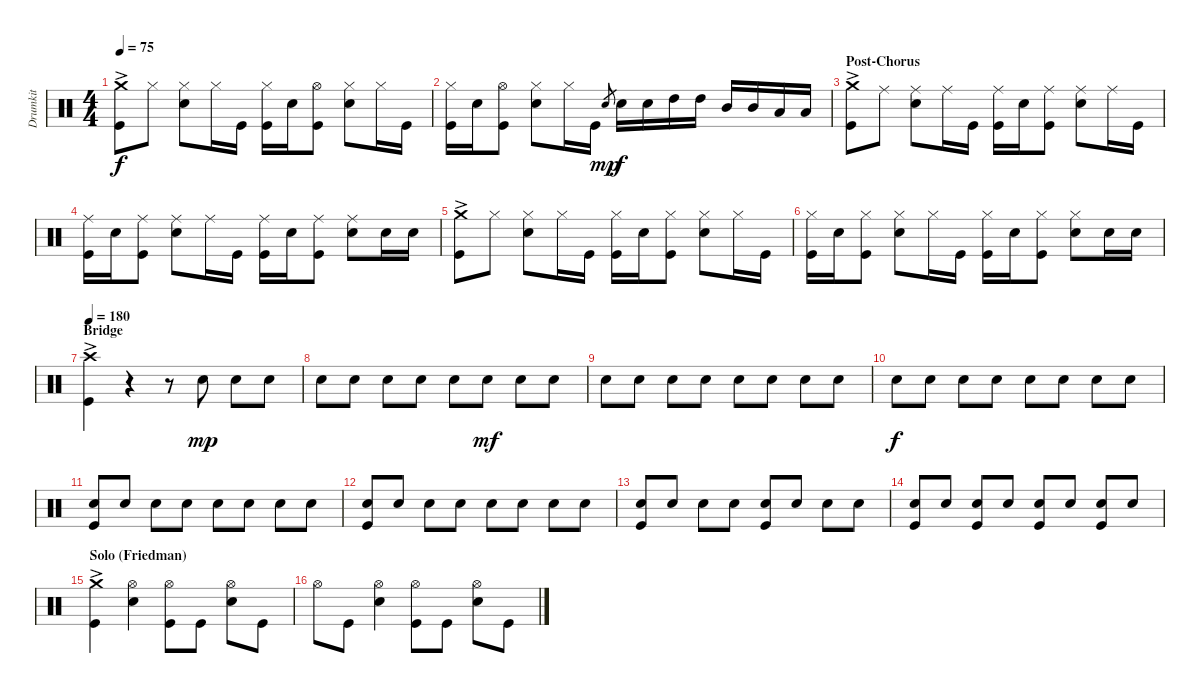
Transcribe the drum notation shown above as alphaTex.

\track ("Drumkit" "Drumkit") {instrument percussion}
\staff {score}
\articulation defaults
\ts (4 4)
\tempo 75
\clef neutral
\ks c
("Crash medium (hit)"{ac} "Kick (hit)").8{dy f} "Hi-Hat (closed)".8 ("Hi-Hat (closed)" "Snare (hit) 2").8 "Hi-Hat (closed)".16 "Kick (hit)".16 ("Hi-Hat (closed)" "Kick (hit)").16 "Snare (hit) 2".16 ("Hi-Hat (open)" "Kick (hit)").8 ("Hi-Hat (closed)" "Snare (hit) 2").8 "Hi-Hat (closed)".16 "Kick (hit)".16 |
("Hi-Hat (closed)" "Kick (hit)").16 "Snare (hit) 2".16 ("Hi-Hat (open)" "Kick (hit)").8 ("Hi-Hat (closed)" "Snare (hit) 2").8 "Hi-Hat (closed)".16 "Kick (hit)".16 "Snare (hit)".8{gr dy mp} "Snare (hit) 2".16{dy f} "Snare (hit) 2".16 "High Tom (hit)".16 "High Tom (hit)".16 "Mid Tom (hit)".16 "Mid Tom (hit)".16 "Low Tom (hit)".16 "Low Tom (hit)".16 |
\section ("" "Post-Chorus")
("Crash medium (hit)"{ac} "Kick (hit)").8 "Ride (middle)".8 ("Ride (middle)" "Snare (hit) 2").8 "Ride (middle)".16 "Kick (hit)".16 ("Ride (middle)" "Kick (hit)").16 "Snare (hit) 2".16 ("Ride (middle)" "Kick (hit)").8 ("Ride (middle)" "Snare (hit) 2").8 "Ride (middle)".16 "Kick (hit)".16 |
("Ride (middle)" "Kick (hit)").16 "Snare (hit) 2".16 ("Ride (middle)" "Kick (hit)").8 ("Ride (middle)" "Snare (hit) 2").8 "Ride (middle)".16 "Kick (hit)".16 ("Ride (middle)" "Kick (hit)").16 "Snare (hit) 2".16 ("Ride (middle)" "Kick (hit)").8 ("Ride (middle)" "Snare (hit) 2").8 "Snare (hit) 2".16 "Snare (hit) 2".16 |
("Crash medium (hit)"{ac} "Kick (hit)").8 "Hi-Hat (closed)".8 ("Hi-Hat (closed)" "Snare (hit) 2").8 "Hi-Hat (closed)".16 "Kick (hit)".16 ("Hi-Hat (closed)" "Kick (hit)").16 "Snare (hit) 2".16 ("Hi-Hat (closed)" "Kick (hit)").8 ("Hi-Hat (closed)" "Snare (hit) 2").8 "Hi-Hat (closed)".16 "Kick (hit)".16 |
("Hi-Hat (closed)" "Kick (hit)").16 "Snare (hit) 2".16 ("Hi-Hat (closed)" "Kick (hit)").8 ("Hi-Hat (closed)" "Snare (hit) 2").8 "Hi-Hat (closed)".16 "Kick (hit)".16 ("Hi-Hat (closed)" "Kick (hit)").16 "Snare (hit) 2".16 ("Hi-Hat (closed)" "Kick (hit)").8 ("Hi-Hat (closed)" "Snare (hit) 2").8 "Snare (hit) 2".16 "Snare (hit) 2".16 |
\section ("" "Bridge")
\tempo 180
("Crash high (hit)"{ac} "Kick (hit)").4 r.4 r.8 "Snare (hit) 2".8{dy mp} "Snare (hit) 2".8 "Snare (hit) 2".8 |
"Snare (hit) 2".8 "Snare (hit) 2".8 "Snare (hit) 2".8 "Snare (hit) 2".8 "Snare (hit) 2".8 "Snare (hit) 2".8{dy mf} "Snare (hit) 2".8 "Snare (hit) 2".8 |
"Snare (hit) 2".8 "Snare (hit) 2".8 "Snare (hit) 2".8 "Snare (hit) 2".8 "Snare (hit) 2".8 "Snare (hit) 2".8 "Snare (hit) 2".8 "Snare (hit) 2".8 |
"Snare (hit) 2".8{dy f} "Snare (hit) 2".8 "Snare (hit) 2".8 "Snare (hit) 2".8 "Snare (hit) 2".8 "Snare (hit) 2".8 "Snare (hit) 2".8 "Snare (hit) 2".8 |
("Snare (hit) 2" "Kick (hit)").8 "Snare (hit) 2".8 "Snare (hit) 2".8 "Snare (hit) 2".8 "Snare (hit) 2".8 "Snare (hit) 2".8 "Snare (hit) 2".8 "Snare (hit) 2".8 |
("Snare (hit) 2" "Kick (hit)").8 "Snare (hit) 2".8 "Snare (hit) 2".8 "Snare (hit) 2".8 "Snare (hit) 2".8 "Snare (hit) 2".8 "Snare (hit) 2".8 "Snare (hit) 2".8 |
("Snare (hit) 2" "Kick (hit)").8 "Snare (hit) 2".8 "Snare (hit) 2".8 "Snare (hit) 2".8 ("Snare (hit) 2" "Kick (hit)").8 "Snare (hit) 2".8 "Snare (hit) 2".8 "Snare (hit) 2".8 |
("Snare (hit) 2" "Kick (hit)").8 "Snare (hit) 2".8 ("Snare (hit) 2" "Kick (hit)").8 "Snare (hit) 2".8 ("Snare (hit) 2" "Kick (hit)").8 "Snare (hit) 2".8 ("Snare (hit) 2" "Kick (hit)").8 "Snare (hit) 2".8 |
\section ("" "Solo (Friedman)")
("Crash medium (hit)"{ac} "Kick (hit)").4 ("Hi-Hat (open)" "Snare (hit) 2").4 ("Hi-Hat (open)" "Kick (hit)").8 "Kick (hit)".8 ("Hi-Hat (open)" "Snare (hit) 2").8 "Kick (hit)".8 |
"Hi-Hat (open)".8 "Kick (hit)".8 ("Hi-Hat (open)" "Snare (hit) 2").4 ("Hi-Hat (open)" "Kick (hit)").8 "Kick (hit)".8 ("Hi-Hat (open)" "Snare (hit) 2").8 "Kick (hit)".8
